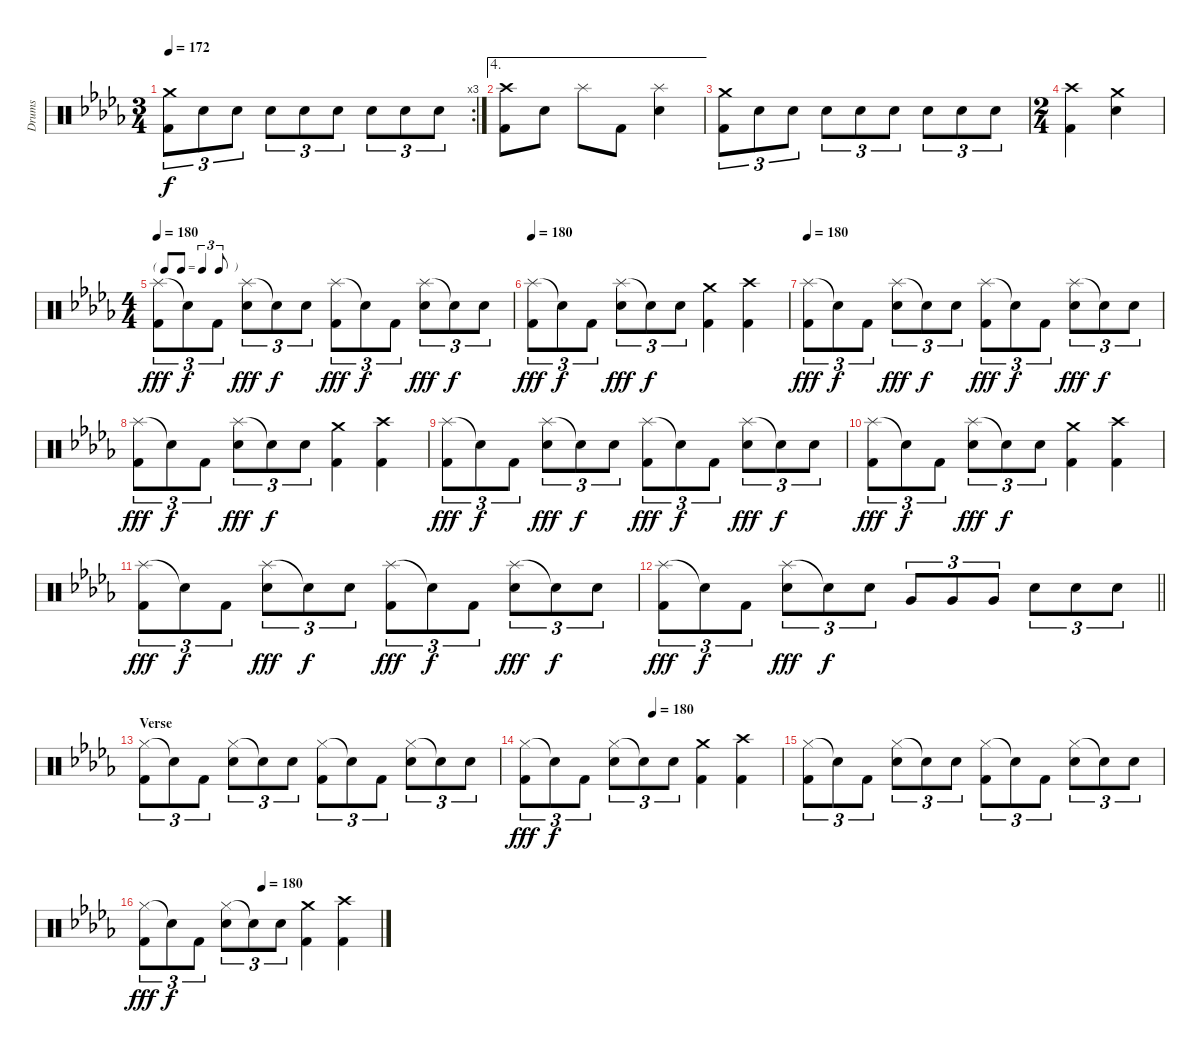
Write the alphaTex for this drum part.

\track ("Drums" "Drums") {instrument percussion}
\staff {score}
\articulation defaults
\rc 3
\ts (3 4)
\tempo 172
\clef neutral
\ks db
("Crash medium (hit)" "Kick (hit) 2").8{tu (3 2) dy f} "Snare (hit) 2".8{tu (3 2)} "Snare (hit) 2".8{tu (3 2)} "Snare (hit) 2".8{tu (3 2)} "Snare (hit) 2".8{tu (3 2)} "Snare (hit) 2".8{tu (3 2)} "Snare (hit) 2".8{tu (3 2)} "Snare (hit) 2".8{tu (3 2)} "Snare (hit) 2".8{tu (3 2)} |
\ae 4
("Crash high (hit)" "Kick (hit) 2").8 "Snare (hit) 2".8 "Splash (hit)".8 "Kick (hit) 2".8 ("Splash (hit)" "Snare (hit) 2").4 |
("Crash medium (hit)" "Kick (hit) 2").8{tu (3 2)} "Snare (hit) 2".8{tu (3 2)} "Snare (hit) 2".8{tu (3 2)} "Snare (hit) 2".8{tu (3 2)} "Snare (hit) 2".8{tu (3 2)} "Snare (hit) 2".8{tu (3 2)} "Snare (hit) 2".8{tu (3 2)} "Snare (hit) 2".8{tu (3 2)} "Snare (hit) 2".8{tu (3 2)} |
\ts (2 4)
("Crash high (hit)" "Kick (hit) 2").4 ("Crash medium (hit)" "Snare (hit) 2").4 |
\ts (4 4)
\tf triplet8th
\tempo 180
("Splash (hit)" "Kick (hit) 2").8{tu (3 2) dy fff} "Snare (hit)"{t}.8{tu (3 2) dy f} "Kick (hit) 2".8{tu (3 2)} ("Splash (hit)" "Snare (hit) 2").8{tu (3 2) dy fff} "Snare (hit)"{t}.8{tu (3 2) dy f} "Snare (hit) 2".8{tu (3 2)} ("Splash (hit)" "Kick (hit) 2").8{tu (3 2) dy fff} "Snare (hit)"{t}.8{tu (3 2) dy f} "Kick (hit) 2".8{tu (3 2)} ("Splash (hit)" "Snare (hit) 2").8{tu (3 2) dy fff} "Snare (hit)"{t}.8{tu (3 2) dy f} "Snare (hit) 2".8{tu (3 2)} |
\tempo 180
("Splash (hit)" "Kick (hit) 2").8{tu (3 2) dy fff} "Snare (hit)"{t}.8{tu (3 2) dy f} "Kick (hit) 2".8{tu (3 2)} ("Splash (hit)" "Snare (hit) 2").8{tu (3 2) dy fff} "Snare (hit)"{t}.8{tu (3 2) dy f} "Snare (hit) 2".8{tu (3 2)} ("Crash medium (hit)" "Kick (hit) 2").4 ("Crash high (hit)" "Kick (hit) 2").4 |
\tempo 180
("Splash (hit)" "Kick (hit) 2").8{tu (3 2) dy fff} "Snare (hit)"{t}.8{tu (3 2) dy f} "Kick (hit) 2".8{tu (3 2)} ("Splash (hit)" "Snare (hit) 2").8{tu (3 2) dy fff} "Snare (hit)"{t}.8{tu (3 2) dy f} "Snare (hit) 2".8{tu (3 2)} ("Splash (hit)" "Kick (hit) 2").8{tu (3 2) dy fff} "Snare (hit)"{t}.8{tu (3 2) dy f} "Kick (hit) 2".8{tu (3 2)} ("Splash (hit)" "Snare (hit) 2").8{tu (3 2) dy fff} "Snare (hit)"{t}.8{tu (3 2) dy f} "Snare (hit) 2".8{tu (3 2)} |
("Splash (hit)" "Kick (hit) 2").8{tu (3 2) dy fff} "Snare (hit)"{t}.8{tu (3 2) dy f} "Kick (hit) 2".8{tu (3 2)} ("Splash (hit)" "Snare (hit) 2").8{tu (3 2) dy fff} "Snare (hit)"{t}.8{tu (3 2) dy f} "Snare (hit) 2".8{tu (3 2)} ("Crash medium (hit)" "Kick (hit) 2").4 ("Crash high (hit)" "Kick (hit) 2").4 |
("Splash (hit)" "Kick (hit) 2").8{tu (3 2) dy fff} "Snare (hit)"{t}.8{tu (3 2) dy f} "Kick (hit) 2".8{tu (3 2)} ("Splash (hit)" "Snare (hit) 2").8{tu (3 2) dy fff} "Snare (hit)"{t}.8{tu (3 2) dy f} "Snare (hit) 2".8{tu (3 2)} ("Splash (hit)" "Kick (hit) 2").8{tu (3 2) dy fff} "Snare (hit)"{t}.8{tu (3 2) dy f} "Kick (hit) 2".8{tu (3 2)} ("Splash (hit)" "Snare (hit) 2").8{tu (3 2) dy fff} "Snare (hit)"{t}.8{tu (3 2) dy f} "Snare (hit) 2".8{tu (3 2)} |
("Splash (hit)" "Kick (hit) 2").8{tu (3 2) dy fff} "Snare (hit)"{t}.8{tu (3 2) dy f} "Kick (hit) 2".8{tu (3 2)} ("Splash (hit)" "Snare (hit) 2").8{tu (3 2) dy fff} "Snare (hit)"{t}.8{tu (3 2) dy f} "Snare (hit) 2".8{tu (3 2)} ("Crash medium (hit)" "Kick (hit) 2").4 ("Crash high (hit)" "Kick (hit) 2").4 |
("Splash (hit)" "Kick (hit) 2").8{tu (3 2) dy fff} "Snare (hit)"{t}.8{tu (3 2) dy f} "Kick (hit) 2".8{tu (3 2)} ("Splash (hit)" "Snare (hit) 2").8{tu (3 2) dy fff} "Snare (hit)"{t}.8{tu (3 2) dy f} "Snare (hit) 2".8{tu (3 2)} ("Splash (hit)" "Kick (hit) 2").8{tu (3 2) dy fff} "Snare (hit)"{t}.8{tu (3 2) dy f} "Kick (hit) 2".8{tu (3 2)} ("Splash (hit)" "Snare (hit) 2").8{tu (3 2) dy fff} "Snare (hit)"{t}.8{tu (3 2) dy f} "Snare (hit) 2".8{tu (3 2)} |
\barLineRight lightlight
("Splash (hit)" "Kick (hit) 2").8{tu (3 2) dy fff} "Snare (hit)"{t}.8{tu (3 2) dy f} "Kick (hit) 2".8{tu (3 2)} ("Splash (hit)" "Snare (hit) 2").8{tu (3 2) dy fff} "Snare (hit)"{t}.8{tu (3 2) dy f} "Snare (hit) 2".8{tu (3 2)} "Very Low Tom (hit)".8{tu (3 2)} "Very Low Tom (hit)".8{tu (3 2)} "Very Low Tom (hit)".8{tu (3 2)} "Snare (hit) 2".8{tu (3 2)} "Snare (hit) 2".8{tu (3 2)} "Snare (hit) 2".8{tu (3 2)} |
\section ("" "Verse")
("Hi-Hat (closed)" "Kick (hit) 2").8{tu (3 2)} "Snare (hit)"{t}.8{tu (3 2)} "Kick (hit) 2".8{tu (3 2)} ("Hi-Hat (closed)" "Snare (hit) 2").8{tu (3 2)} "Snare (hit)"{t}.8{tu (3 2)} "Snare (hit) 2".8{tu (3 2)} ("Hi-Hat (closed)" "Kick (hit) 2").8{tu (3 2)} "Snare (hit)"{t}.8{tu (3 2)} "Kick (hit) 2".8{tu (3 2)} ("Hi-Hat (closed)" "Snare (hit) 2").8{tu (3 2)} "Snare (hit)"{t}.8{tu (3 2)} "Snare (hit) 2".8{tu (3 2)} |
\tempo (180 0.5)
("Hi-Hat (closed)" "Kick (hit) 2").8{tu (3 2) dy fff} "Snare (hit)"{t}.8{tu (3 2) dy f} "Kick (hit) 2".8{tu (3 2)} ("Hi-Hat (closed)" "Snare (hit) 2").8{tu (3 2)} "Snare (hit)"{t}.8{tu (3 2)} "Snare (hit) 2".8{tu (3 2)} ("Crash medium (hit)" "Kick (hit) 2").4 ("Crash high (hit)" "Kick (hit) 2").4 |
("Hi-Hat (closed)" "Kick (hit) 2").8{tu (3 2)} "Snare (hit)"{t}.8{tu (3 2)} "Kick (hit) 2".8{tu (3 2)} ("Hi-Hat (closed)" "Snare (hit) 2").8{tu (3 2)} "Snare (hit)"{t}.8{tu (3 2)} "Snare (hit) 2".8{tu (3 2)} ("Hi-Hat (closed)" "Kick (hit) 2").8{tu (3 2)} "Snare (hit)"{t}.8{tu (3 2)} "Kick (hit) 2".8{tu (3 2)} ("Hi-Hat (closed)" "Snare (hit) 2").8{tu (3 2)} "Snare (hit)"{t}.8{tu (3 2)} "Snare (hit) 2".8{tu (3 2)} |
\tempo (180 0.5)
("Hi-Hat (closed)" "Kick (hit) 2").8{tu (3 2) dy fff} "Snare (hit)"{t}.8{tu (3 2) dy f} "Kick (hit) 2".8{tu (3 2)} ("Hi-Hat (closed)" "Snare (hit) 2").8{tu (3 2)} "Snare (hit)"{t}.8{tu (3 2)} "Snare (hit) 2".8{tu (3 2)} ("Crash medium (hit)" "Kick (hit) 2").4 ("Crash high (hit)" "Kick (hit) 2").4
